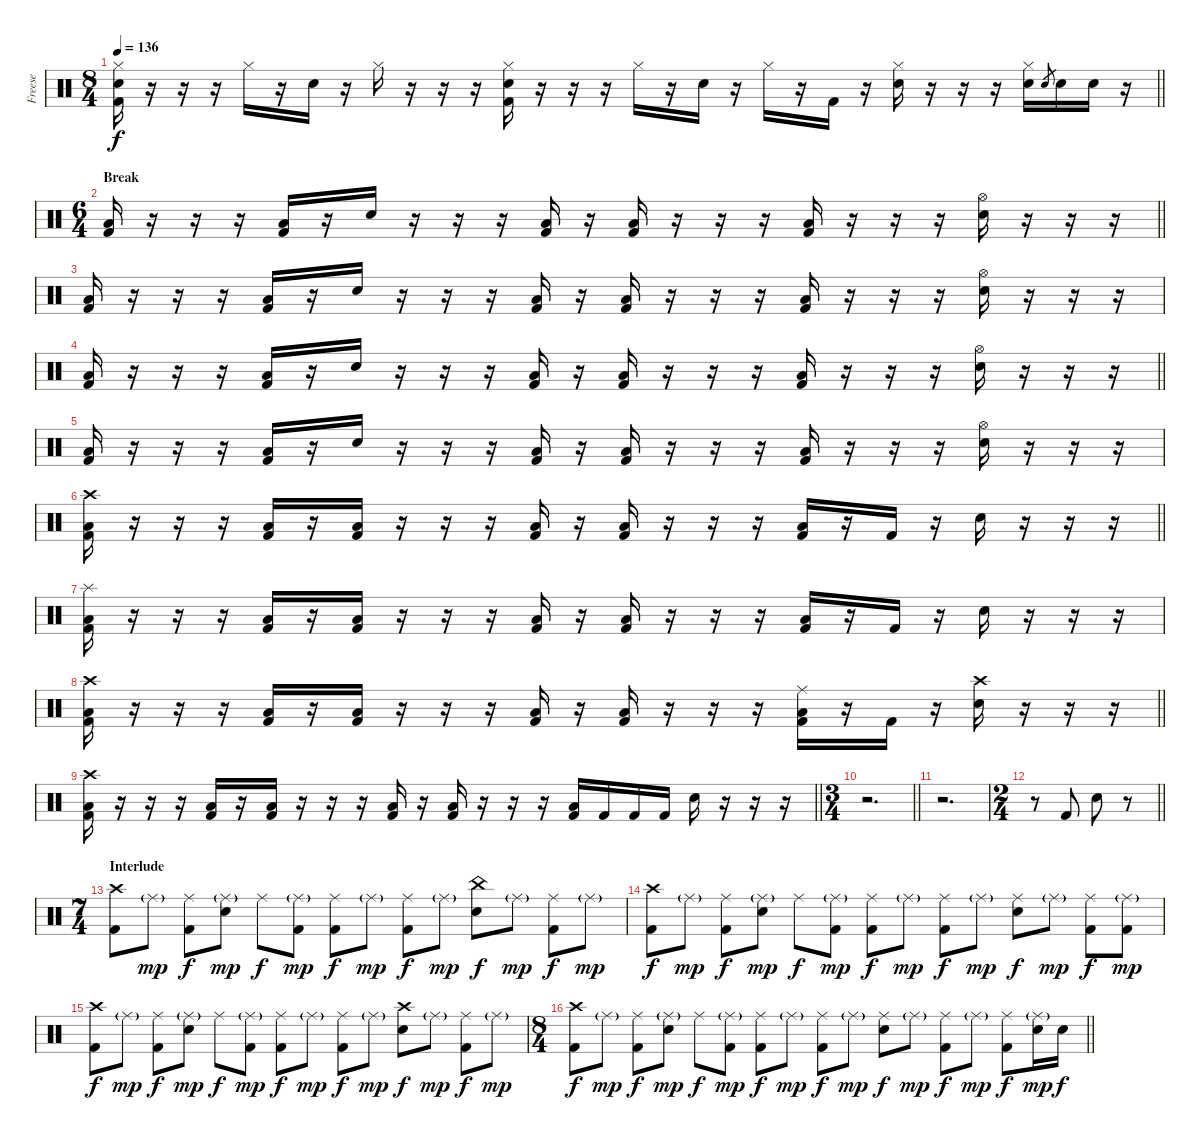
\track ("Freese" "Freese") {instrument percussion}
\staff {score}
\articulation defaults
\ts (8 4)
\tempo 136
\clef neutral
\barLineRight lightlight
\ks c
("Hi-Hat (closed)" "Snare (hit) 2" "Kick (hit) 2").16{dy f} r.16 r.16 r.16 "Hi-Hat (closed)".16 r.16 "Snare (hit) 2".16 r.16 "Hi-Hat (closed)".16 r.16 r.16 r.16 ("Hi-Hat (closed)" "Snare (hit) 2" "Kick (hit) 2").16 r.16 r.16 r.16 "Hi-Hat (closed)".16 r.16 "Snare (hit) 2".16 r.16 "Hi-Hat (closed)".16 r.16 "Kick (hit) 2".16 r.16 ("Hi-Hat (closed)" "Snare (hit) 2").16 r.16 r.16 r.16 ("Hi-Hat (closed)" "Snare (hit) 2").16 "Snare (hit) 2".8{gr} "Snare (hit) 2".16 "Snare (hit) 2".16 r.16 |
\ts (6 4)
\section ("" "Break")
\barLineRight lightlight
("Low Floor Tom (hit)" "Kick (hit) 2").16 r.16 r.16 r.16 ("Low Floor Tom (hit)" "Kick (hit) 2").16 r.16 "Snare (hit) 2".16 r.16 r.16 r.16 ("Low Tom (hit)" "Kick (hit) 2").16 r.16 ("Low Floor Tom (hit)" "Kick (hit) 2").16 r.16 r.16 r.16 ("Low Floor Tom (hit)" "Kick (hit) 2").16 r.16 r.16 r.16 ("Hi-Hat (open)" "Snare (hit) 2").16 r.16 r.16 r.16 |
("Low Floor Tom (hit)" "Kick (hit) 2").16 r.16 r.16 r.16 ("Low Floor Tom (hit)" "Kick (hit) 2").16 r.16 "Snare (hit) 2".16 r.16 r.16 r.16 ("Low Tom (hit)" "Kick (hit) 2").16 r.16 ("Low Floor Tom (hit)" "Kick (hit) 2").16 r.16 r.16 r.16 ("Low Floor Tom (hit)" "Kick (hit) 2").16 r.16 r.16 r.16 ("Hi-Hat (open)" "Snare (hit) 2").16 r.16 r.16 r.16 |
\barLineRight lightlight
("Low Floor Tom (hit)" "Kick (hit) 2").16 r.16 r.16 r.16 ("Low Floor Tom (hit)" "Kick (hit) 2").16 r.16 "Snare (hit) 2".16 r.16 r.16 r.16 ("Low Tom (hit)" "Kick (hit) 2").16 r.16 ("Low Floor Tom (hit)" "Kick (hit) 2").16 r.16 r.16 r.16 ("Low Floor Tom (hit)" "Kick (hit) 2").16 r.16 r.16 r.16 ("Hi-Hat (open)" "Snare (hit) 2").16 r.16 r.16 r.16 |
("Low Floor Tom (hit)" "Kick (hit) 2").16 r.16 r.16 r.16 ("Low Floor Tom (hit)" "Kick (hit) 2").16 r.16 "Snare (hit) 2".16 r.16 r.16 r.16 ("Low Tom (hit)" "Kick (hit) 2").16 r.16 ("Low Floor Tom (hit)" "Kick (hit) 2").16 r.16 r.16 r.16 ("Low Floor Tom (hit)" "Kick (hit) 2").16 r.16 r.16 r.16 ("Hi-Hat (open)" "Snare (hit) 2").16 r.16 r.16 r.16 |
\barLineRight lightlight
("Crash high (hit)" "Low Floor Tom (hit)" "Kick (hit) 2").16 r.16 r.16 r.16 ("Low Floor Tom (hit)" "Kick (hit) 2").16 r.16 ("Low Floor Tom (hit)" "Kick (hit) 2").16 r.16 r.16 r.16 ("Low Tom (hit)" "Kick (hit) 2").16 r.16 ("Low Floor Tom (hit)" "Kick (hit) 2").16 r.16 r.16 r.16 ("Low Floor Tom (hit)" "Kick (hit) 2").16 r.16 "Kick (hit) 2".16 r.16 "Snare (hit) 2".16 r.16 r.16 r.16 |
("Splash (hit)" "Low Floor Tom (hit)" "Kick (hit) 2").16 r.16 r.16 r.16 ("Low Floor Tom (hit)" "Kick (hit) 2").16 r.16 ("Low Floor Tom (hit)" "Kick (hit) 2").16 r.16 r.16 r.16 ("Low Tom (hit)" "Kick (hit) 2").16 r.16 ("Low Floor Tom (hit)" "Kick (hit) 2").16 r.16 r.16 r.16 ("Low Floor Tom (hit)" "Kick (hit) 2").16 r.16 "Kick (hit) 2".16 r.16 "Snare (hit) 2".16 r.16 r.16 r.16 |
\barLineRight lightlight
("Crash high (hit)" "Low Floor Tom (hit)" "Kick (hit) 2").16 r.16 r.16 r.16 ("Low Floor Tom (hit)" "Kick (hit) 2").16 r.16 ("Low Floor Tom (hit)" "Kick (hit) 2").16 r.16 r.16 r.16 ("Low Tom (hit)" "Kick (hit) 2").16 r.16 ("Low Floor Tom (hit)" "Kick (hit) 2").16 r.16 r.16 r.16 ("Ride (middle)" "Low Floor Tom (hit)" "Kick (hit) 2").16 r.16 "Kick (hit) 2".16 r.16 ("Crash high (hit)" "Snare (hit) 2").16 r.16 r.16 r.16 |
\barLineRight lightlight
("Crash high (hit)" "Low Floor Tom (hit)" "Kick (hit) 2").16 r.16 r.16 r.16 ("Low Floor Tom (hit)" "Kick (hit) 2").16 r.16 ("Low Floor Tom (hit)" "Kick (hit) 2").16 r.16 r.16 r.16 ("Low Tom (hit)" "Kick (hit) 2").16 r.16 ("Low Floor Tom (hit)" "Kick (hit) 2").16 r.16 r.16 r.16 ("Low Floor Tom (hit)" "Kick (hit) 2").16 "Kick (hit) 2".16 "Kick (hit) 2".16 "Kick (hit) 2".16 "Snare (hit) 2".16 r.16 r.16 r.16 |
\ts (3 4)
\barLineRight lightlight
r.2{d} |
r.2{d} |
\ts (2 4)
\barLineRight lightlight
r.8 "Kick (hit) 2".8 "Snare (hit) 2".8 r.8 |
\ts (7 4)
\section ("" "Interlude")
("Crash high (hit)" "Kick (hit) 2").8 "Ride (middle)"{g}.8{dy mp} ("Ride (middle)" "Kick (hit) 2").8{dy f} ("Ride (middle)"{g} "Snare (hit) 2").8{dy mp} "Ride (middle)".8{dy f} ("Ride (middle)"{g} "Kick (hit) 2").8{dy mp} ("Ride (middle)" "Kick (hit) 2").8{dy f} "Ride (middle)"{g}.8{dy mp} ("Ride (middle)" "Kick (hit) 2").8{dy f} "Ride (middle)"{g}.8{dy mp} ("China (hit)" "Snare (hit) 2").8{dy f} "Ride (middle)"{g}.8{dy mp} ("Ride (middle)" "Kick (hit) 2").8{dy f} "Ride (middle)"{g}.8{dy mp} |
("Crash high (hit)" "Kick (hit) 2").8{dy f} "Ride (middle)"{g}.8{dy mp} ("Ride (middle)" "Kick (hit) 2").8{dy f} ("Ride (middle)"{g} "Snare (hit) 2").8{dy mp} "Ride (middle)".8{dy f} ("Ride (middle)"{g} "Kick (hit) 2").8{dy mp} ("Ride (middle)" "Kick (hit) 2").8{dy f} "Ride (middle)"{g}.8{dy mp} ("Ride (middle)" "Kick (hit) 2").8{dy f} "Ride (middle)"{g}.8{dy mp} ("Ride (middle)" "Snare (hit) 2").8{dy f} "Ride (middle)"{g}.8{dy mp} ("Ride (middle)" "Kick (hit) 2").8{dy f} ("Ride (middle)"{g} "Kick (hit) 2").8{dy mp} |
("Crash high (hit)" "Kick (hit) 2").8{dy f} "Ride (middle)"{g}.8{dy mp} ("Ride (middle)" "Kick (hit) 2").8{dy f} ("Ride (middle)"{g} "Snare (hit) 2").8{dy mp} "Ride (middle)".8{dy f} ("Ride (middle)"{g} "Kick (hit) 2").8{dy mp} ("Ride (middle)" "Kick (hit) 2").8{dy f} "Ride (middle)"{g}.8{dy mp} ("Ride (middle)" "Kick (hit) 2").8{dy f} "Ride (middle)"{g}.8{dy mp} ("Crash high (hit)" "Snare (hit) 2").8{dy f} "Ride (middle)"{g}.8{dy mp} ("Ride (middle)" "Kick (hit) 2").8{dy f} "Ride (middle)"{g}.8{dy mp} |
\ts (8 4)
\barLineRight lightlight
("Crash high (hit)" "Kick (hit) 2").8{dy f} "Ride (middle)"{g}.8{dy mp} ("Ride (middle)" "Kick (hit) 2").8{dy f} ("Ride (middle)"{g} "Snare (hit) 2").8{dy mp} "Ride (middle)".8{dy f} ("Ride (middle)"{g} "Kick (hit) 2").8{dy mp} ("Ride (middle)" "Kick (hit) 2").8{dy f} "Ride (middle)"{g}.8{dy mp} ("Ride (middle)" "Kick (hit) 2").8{dy f} "Ride (middle)"{g}.8{dy mp} ("Ride (middle)" "Snare (hit) 2").8{dy f} "Ride (middle)"{g}.8{dy mp} ("Ride (middle)" "Kick (hit) 2").8{dy f} "Ride (middle)"{g}.8{dy mp} ("Ride (middle)" "Kick (hit) 2").8{dy f} ("Ride (middle)"{g} "Snare (hit) 2").16{dy mp} "Snare (hit) 2".16{dy f}
